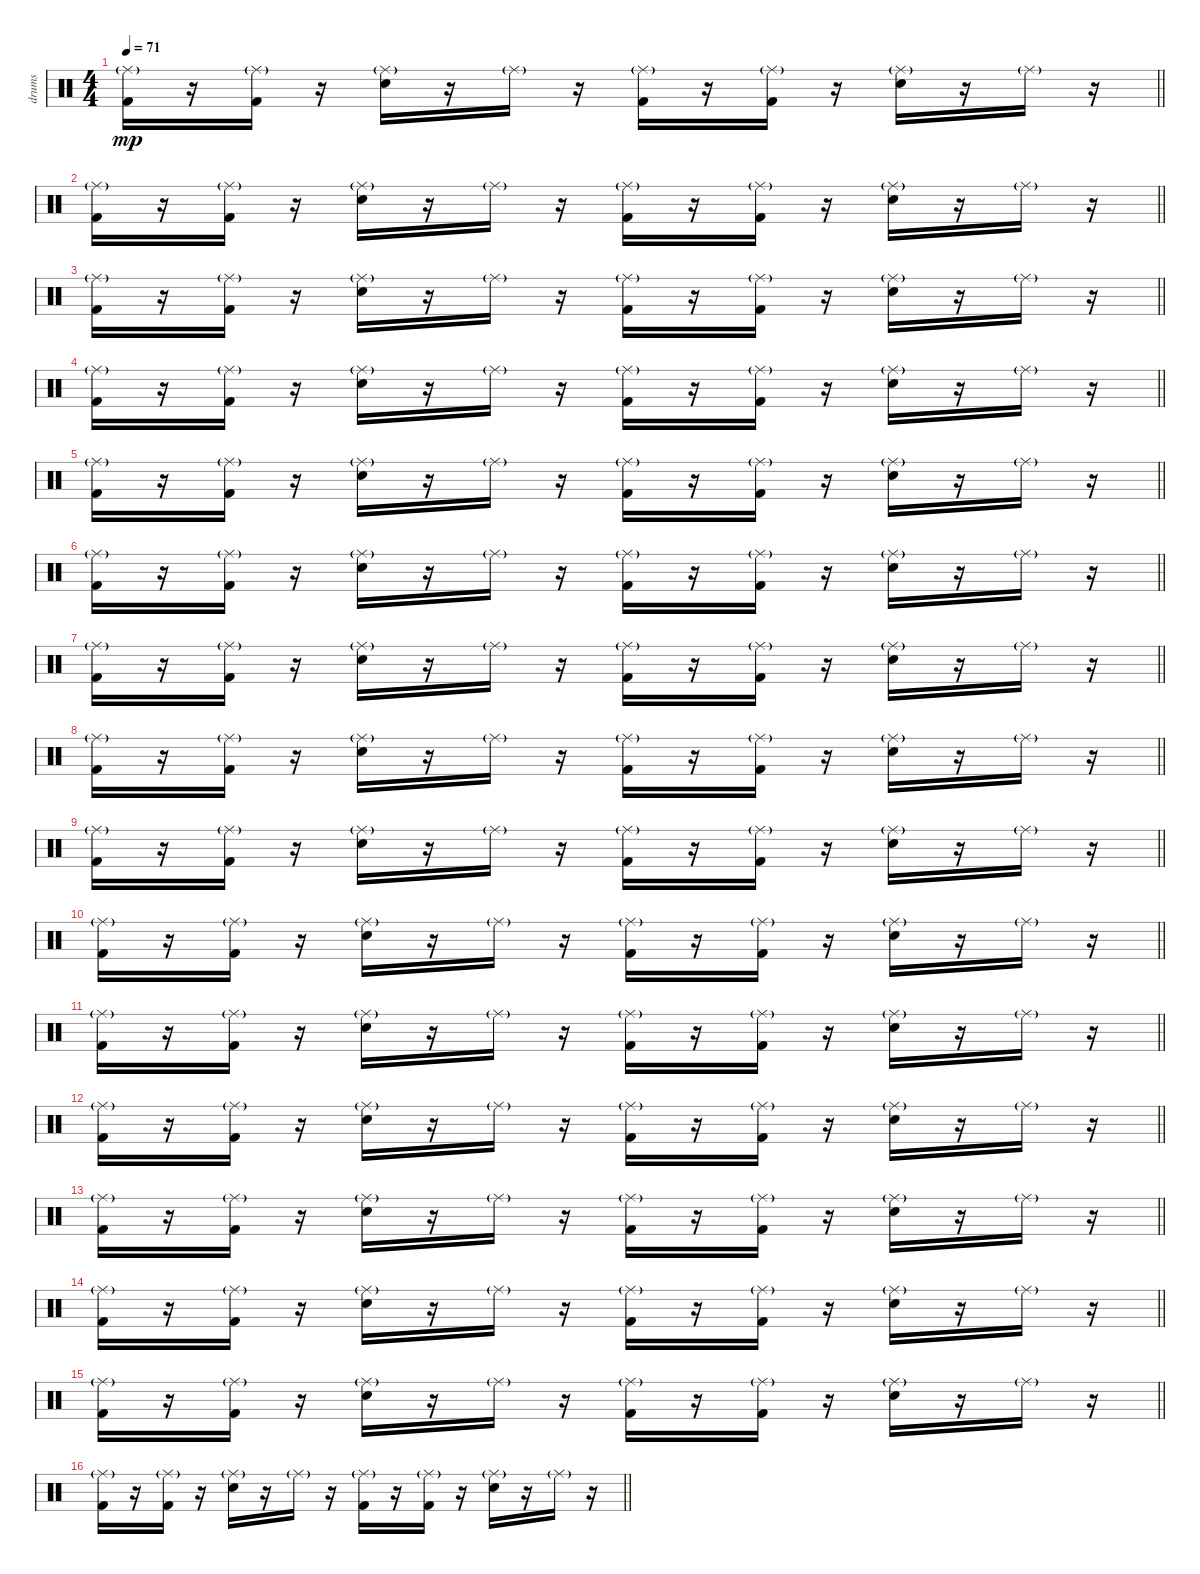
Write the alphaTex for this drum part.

\track ("drums" "drums") {instrument percussion}
\staff {score}
\articulation defaults
\ts (4 4)
\tempo 71
\clef neutral
\barLineRight lightlight
\ks c
("Kick (hit) 2" "Ride (middle)"{g}).16{dy mp} r.16 ("Kick (hit) 2" "Ride (middle)"{g}).16 r.16 ("Electric Snare (hit)" "Ride (middle)"{g}).16 r.16 "Ride (middle)"{g}.16 r.16 ("Kick (hit) 2" "Ride (middle)"{g}).16 r.16 ("Kick (hit) 2" "Ride (middle)"{g}).16 r.16 ("Electric Snare (hit)" "Ride (middle)"{g}).16 r.16 "Ride (middle)"{g}.16 r.16 |
\barLineRight lightlight
("Kick (hit) 2" "Ride (middle)"{g}).16 r.16 ("Kick (hit) 2" "Ride (middle)"{g}).16 r.16 ("Electric Snare (hit)" "Ride (middle)"{g}).16 r.16 "Ride (middle)"{g}.16 r.16 ("Kick (hit) 2" "Ride (middle)"{g}).16 r.16 ("Kick (hit) 2" "Ride (middle)"{g}).16 r.16 ("Electric Snare (hit)" "Ride (middle)"{g}).16 r.16 "Ride (middle)"{g}.16 r.16 |
\barLineRight lightlight
("Kick (hit) 2" "Ride (middle)"{g}).16 r.16 ("Kick (hit) 2" "Ride (middle)"{g}).16 r.16 ("Electric Snare (hit)" "Ride (middle)"{g}).16 r.16 "Ride (middle)"{g}.16 r.16 ("Kick (hit) 2" "Ride (middle)"{g}).16 r.16 ("Kick (hit) 2" "Ride (middle)"{g}).16 r.16 ("Electric Snare (hit)" "Ride (middle)"{g}).16 r.16 "Ride (middle)"{g}.16 r.16 |
\barLineRight lightlight
("Kick (hit) 2" "Ride (middle)"{g}).16 r.16 ("Kick (hit) 2" "Ride (middle)"{g}).16 r.16 ("Electric Snare (hit)" "Ride (middle)"{g}).16 r.16 "Ride (middle)"{g}.16 r.16 ("Kick (hit) 2" "Ride (middle)"{g}).16 r.16 ("Kick (hit) 2" "Ride (middle)"{g}).16 r.16 ("Electric Snare (hit)" "Ride (middle)"{g}).16 r.16 "Ride (middle)"{g}.16 r.16 |
\barLineRight lightlight
("Kick (hit) 2" "Ride (middle)"{g}).16 r.16 ("Kick (hit) 2" "Ride (middle)"{g}).16 r.16 ("Electric Snare (hit)" "Ride (middle)"{g}).16 r.16 "Ride (middle)"{g}.16 r.16 ("Kick (hit) 2" "Ride (middle)"{g}).16 r.16 ("Kick (hit) 2" "Ride (middle)"{g}).16 r.16 ("Electric Snare (hit)" "Ride (middle)"{g}).16 r.16 "Ride (middle)"{g}.16 r.16 |
\barLineRight lightlight
("Kick (hit) 2" "Ride (middle)"{g}).16 r.16 ("Kick (hit) 2" "Ride (middle)"{g}).16 r.16 ("Electric Snare (hit)" "Ride (middle)"{g}).16 r.16 "Ride (middle)"{g}.16 r.16 ("Kick (hit) 2" "Ride (middle)"{g}).16 r.16 ("Kick (hit) 2" "Ride (middle)"{g}).16 r.16 ("Electric Snare (hit)" "Ride (middle)"{g}).16 r.16 "Ride (middle)"{g}.16 r.16 |
\barLineRight lightlight
("Kick (hit) 2" "Ride (middle)"{g}).16 r.16 ("Kick (hit) 2" "Ride (middle)"{g}).16 r.16 ("Electric Snare (hit)" "Ride (middle)"{g}).16 r.16 "Ride (middle)"{g}.16 r.16 ("Kick (hit) 2" "Ride (middle)"{g}).16 r.16 ("Kick (hit) 2" "Ride (middle)"{g}).16 r.16 ("Electric Snare (hit)" "Ride (middle)"{g}).16 r.16 "Ride (middle)"{g}.16 r.16 |
\barLineRight lightlight
("Kick (hit) 2" "Ride (middle)"{g}).16 r.16 ("Kick (hit) 2" "Ride (middle)"{g}).16 r.16 ("Electric Snare (hit)" "Ride (middle)"{g}).16 r.16 "Ride (middle)"{g}.16 r.16 ("Kick (hit) 2" "Ride (middle)"{g}).16 r.16 ("Kick (hit) 2" "Ride (middle)"{g}).16 r.16 ("Electric Snare (hit)" "Ride (middle)"{g}).16 r.16 "Ride (middle)"{g}.16 r.16 |
\barLineRight lightlight
("Kick (hit) 2" "Ride (middle)"{g}).16 r.16 ("Kick (hit) 2" "Ride (middle)"{g}).16 r.16 ("Electric Snare (hit)" "Ride (middle)"{g}).16 r.16 "Ride (middle)"{g}.16 r.16 ("Kick (hit) 2" "Ride (middle)"{g}).16 r.16 ("Kick (hit) 2" "Ride (middle)"{g}).16 r.16 ("Electric Snare (hit)" "Ride (middle)"{g}).16 r.16 "Ride (middle)"{g}.16 r.16 |
\barLineRight lightlight
("Kick (hit) 2" "Ride (middle)"{g}).16 r.16 ("Kick (hit) 2" "Ride (middle)"{g}).16 r.16 ("Electric Snare (hit)" "Ride (middle)"{g}).16 r.16 "Ride (middle)"{g}.16 r.16 ("Kick (hit) 2" "Ride (middle)"{g}).16 r.16 ("Kick (hit) 2" "Ride (middle)"{g}).16 r.16 ("Electric Snare (hit)" "Ride (middle)"{g}).16 r.16 "Ride (middle)"{g}.16 r.16 |
\barLineRight lightlight
("Kick (hit) 2" "Ride (middle)"{g}).16 r.16 ("Kick (hit) 2" "Ride (middle)"{g}).16 r.16 ("Electric Snare (hit)" "Ride (middle)"{g}).16 r.16 "Ride (middle)"{g}.16 r.16 ("Kick (hit) 2" "Ride (middle)"{g}).16 r.16 ("Kick (hit) 2" "Ride (middle)"{g}).16 r.16 ("Electric Snare (hit)" "Ride (middle)"{g}).16 r.16 "Ride (middle)"{g}.16 r.16 |
\barLineRight lightlight
("Kick (hit) 2" "Ride (middle)"{g}).16 r.16 ("Kick (hit) 2" "Ride (middle)"{g}).16 r.16 ("Electric Snare (hit)" "Ride (middle)"{g}).16 r.16 "Ride (middle)"{g}.16 r.16 ("Kick (hit) 2" "Ride (middle)"{g}).16 r.16 ("Kick (hit) 2" "Ride (middle)"{g}).16 r.16 ("Electric Snare (hit)" "Ride (middle)"{g}).16 r.16 "Ride (middle)"{g}.16 r.16 |
\barLineRight lightlight
("Kick (hit) 2" "Ride (middle)"{g}).16 r.16 ("Kick (hit) 2" "Ride (middle)"{g}).16 r.16 ("Electric Snare (hit)" "Ride (middle)"{g}).16 r.16 "Ride (middle)"{g}.16 r.16 ("Kick (hit) 2" "Ride (middle)"{g}).16 r.16 ("Kick (hit) 2" "Ride (middle)"{g}).16 r.16 ("Electric Snare (hit)" "Ride (middle)"{g}).16 r.16 "Ride (middle)"{g}.16 r.16 |
\barLineRight lightlight
("Kick (hit) 2" "Ride (middle)"{g}).16 r.16 ("Kick (hit) 2" "Ride (middle)"{g}).16 r.16 ("Electric Snare (hit)" "Ride (middle)"{g}).16 r.16 "Ride (middle)"{g}.16 r.16 ("Kick (hit) 2" "Ride (middle)"{g}).16 r.16 ("Kick (hit) 2" "Ride (middle)"{g}).16 r.16 ("Electric Snare (hit)" "Ride (middle)"{g}).16 r.16 "Ride (middle)"{g}.16 r.16 |
\barLineRight lightlight
("Kick (hit) 2" "Ride (middle)"{g}).16 r.16 ("Kick (hit) 2" "Ride (middle)"{g}).16 r.16 ("Electric Snare (hit)" "Ride (middle)"{g}).16 r.16 "Ride (middle)"{g}.16 r.16 ("Kick (hit) 2" "Ride (middle)"{g}).16 r.16 ("Kick (hit) 2" "Ride (middle)"{g}).16 r.16 ("Electric Snare (hit)" "Ride (middle)"{g}).16 r.16 "Ride (middle)"{g}.16 r.16 |
\barLineRight lightlight
("Kick (hit) 2" "Ride (middle)"{g}).16 r.16 ("Kick (hit) 2" "Ride (middle)"{g}).16 r.16 ("Electric Snare (hit)" "Ride (middle)"{g}).16 r.16 "Ride (middle)"{g}.16 r.16 ("Kick (hit) 2" "Ride (middle)"{g}).16 r.16 ("Kick (hit) 2" "Ride (middle)"{g}).16 r.16 ("Electric Snare (hit)" "Ride (middle)"{g}).16 r.16 "Ride (middle)"{g}.16 r.16
